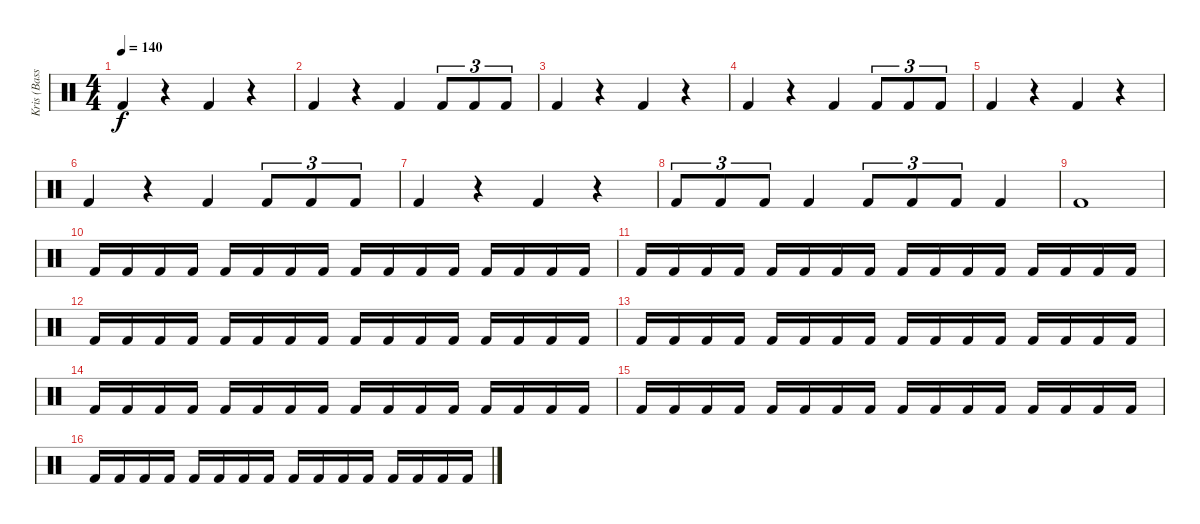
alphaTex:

\track ("Kris (Bass Drums)" "Kris (Bass") {instrument percussion}
\staff {score}
\articulation defaults
\ts (4 4)
\tempo 140
\clef neutral
\ks c "Kick (hit) 2".4{dy f}
r.4 "Kick (hit) 2".4 r.4 |
"Kick (hit) 2".4 r.4 "Kick (hit) 2".4 "Kick (hit) 2".8{tu (3 2)} "Kick (hit) 2".8{tu (3 2)} "Kick (hit) 2".8{tu (3 2)} |
"Kick (hit) 2".4 r.4 "Kick (hit) 2".4 r.4 |
"Kick (hit) 2".4 r.4 "Kick (hit) 2".4 "Kick (hit) 2".8{tu (3 2)} "Kick (hit) 2".8{tu (3 2)} "Kick (hit) 2".8{tu (3 2)} |
"Kick (hit) 2".4 r.4 "Kick (hit) 2".4 r.4 |
"Kick (hit) 2".4 r.4 "Kick (hit) 2".4 "Kick (hit) 2".8{tu (3 2)} "Kick (hit) 2".8{tu (3 2)} "Kick (hit) 2".8{tu (3 2)} |
"Kick (hit) 2".4 r.4 "Kick (hit) 2".4 r.4 |
"Kick (hit) 2".8{tu (3 2)} "Kick (hit) 2".8{tu (3 2)} "Kick (hit) 2".8{tu (3 2)} "Kick (hit) 2".4 "Kick (hit) 2".8{tu (3 2)} "Kick (hit) 2".8{tu (3 2)} "Kick (hit) 2".8{tu (3 2)} "Kick (hit) 2".4 |
"Kick (hit) 2".1 |
"Kick (hit) 2".16 "Kick (hit) 2".16 "Kick (hit) 2".16 "Kick (hit) 2".16 "Kick (hit) 2".16 "Kick (hit) 2".16 "Kick (hit) 2".16 "Kick (hit) 2".16 "Kick (hit) 2".16 "Kick (hit) 2".16 "Kick (hit) 2".16 "Kick (hit) 2".16 "Kick (hit) 2".16 "Kick (hit) 2".16 "Kick (hit) 2".16 "Kick (hit) 2".16 |
"Kick (hit) 2".16 "Kick (hit) 2".16 "Kick (hit) 2".16 "Kick (hit) 2".16 "Kick (hit) 2".16 "Kick (hit) 2".16 "Kick (hit) 2".16 "Kick (hit) 2".16 "Kick (hit) 2".16 "Kick (hit) 2".16 "Kick (hit) 2".16 "Kick (hit) 2".16 "Kick (hit) 2".16 "Kick (hit) 2".16 "Kick (hit) 2".16 "Kick (hit) 2".16 |
"Kick (hit) 2".16 "Kick (hit) 2".16 "Kick (hit) 2".16 "Kick (hit) 2".16 "Kick (hit) 2".16 "Kick (hit) 2".16 "Kick (hit) 2".16 "Kick (hit) 2".16 "Kick (hit) 2".16 "Kick (hit) 2".16 "Kick (hit) 2".16 "Kick (hit) 2".16 "Kick (hit) 2".16 "Kick (hit) 2".16 "Kick (hit) 2".16 "Kick (hit) 2".16 |
"Kick (hit) 2".16 "Kick (hit) 2".16 "Kick (hit) 2".16 "Kick (hit) 2".16 "Kick (hit) 2".16 "Kick (hit) 2".16 "Kick (hit) 2".16 "Kick (hit) 2".16 "Kick (hit) 2".16 "Kick (hit) 2".16 "Kick (hit) 2".16 "Kick (hit) 2".16 "Kick (hit) 2".16 "Kick (hit) 2".16 "Kick (hit) 2".16 "Kick (hit) 2".16 |
"Kick (hit) 2".16 "Kick (hit) 2".16 "Kick (hit) 2".16 "Kick (hit) 2".16 "Kick (hit) 2".16 "Kick (hit) 2".16 "Kick (hit) 2".16 "Kick (hit) 2".16 "Kick (hit) 2".16 "Kick (hit) 2".16 "Kick (hit) 2".16 "Kick (hit) 2".16 "Kick (hit) 2".16 "Kick (hit) 2".16 "Kick (hit) 2".16 "Kick (hit) 2".16 |
"Kick (hit) 2".16 "Kick (hit) 2".16 "Kick (hit) 2".16 "Kick (hit) 2".16 "Kick (hit) 2".16 "Kick (hit) 2".16 "Kick (hit) 2".16 "Kick (hit) 2".16 "Kick (hit) 2".16 "Kick (hit) 2".16 "Kick (hit) 2".16 "Kick (hit) 2".16 "Kick (hit) 2".16 "Kick (hit) 2".16 "Kick (hit) 2".16 "Kick (hit) 2".16 |
"Kick (hit) 2".16 "Kick (hit) 2".16 "Kick (hit) 2".16 "Kick (hit) 2".16 "Kick (hit) 2".16 "Kick (hit) 2".16 "Kick (hit) 2".16 "Kick (hit) 2".16 "Kick (hit) 2".16 "Kick (hit) 2".16 "Kick (hit) 2".16 "Kick (hit) 2".16 "Kick (hit) 2".16 "Kick (hit) 2".16 "Kick (hit) 2".16 "Kick (hit) 2".16
